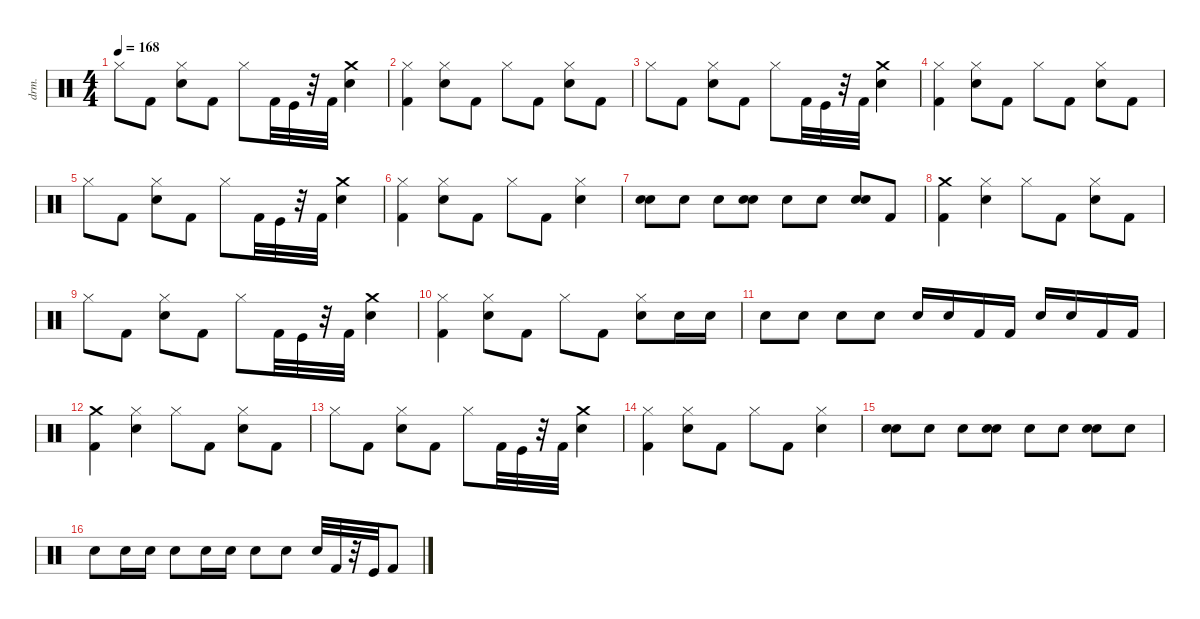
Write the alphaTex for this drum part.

\defaultSystemsLayout 4
\hideDynamics
\bracketExtendMode nobrackets
\otherSystemsTrackNameOrientation horizontal
\track ("Drums" "drm.") {instrument percussion}
\staff {score}
\articulation defaults
\ts (4 4)
\tempo 168
\clef neutral
\ks c "Hi-Hat (closed)".8{dy fff} "Kick (hit) 2".8
("Snare (hit) 2" "Hi-Hat (closed)").8 "Kick (hit) 2".8 "Hi-Hat (closed)".8 "Kick (hit) 2".32 "Kick (hit)".32 r.32 "Kick (hit) 2".32 ("Crash medium (hit)" "Snare (hit) 2").4 |
("Hi-Hat (closed)" "Kick (hit) 2").4 ("Hi-Hat (closed)" "Snare (hit) 2").8 "Kick (hit) 2".8 "Hi-Hat (closed)".8 "Kick (hit) 2".8 ("Snare (hit) 2" "Hi-Hat (closed)").8 "Kick (hit) 2".8 |
"Hi-Hat (closed)".8 "Kick (hit) 2".8 ("Snare (hit) 2" "Hi-Hat (closed)").8 "Kick (hit) 2".8 "Hi-Hat (closed)".8 "Kick (hit) 2".32 "Kick (hit)".32 r.32 "Kick (hit) 2".32 ("Crash medium (hit)" "Snare (hit) 2").4 |
("Hi-Hat (closed)" "Kick (hit) 2").4 ("Hi-Hat (closed)" "Snare (hit) 2").8 "Kick (hit) 2".8 "Hi-Hat (closed)".8 "Kick (hit) 2".8 ("Snare (hit) 2" "Hi-Hat (closed)").8 "Kick (hit) 2".8 |
"Hi-Hat (closed)".8 "Kick (hit) 2".8 ("Snare (hit) 2" "Hi-Hat (closed)").8 "Kick (hit) 2".8 "Hi-Hat (closed)".8 "Kick (hit) 2".32 "Kick (hit)".32 r.32 "Kick (hit) 2".32 ("Crash medium (hit)" "Snare (hit) 2").4 |
("Kick (hit) 2" "Hi-Hat (closed)").4 ("Hi-Hat (closed)" "Snare (hit) 2").8 "Kick (hit) 2".8 "Hi-Hat (closed)".8 "Kick (hit) 2".8 ("Snare (hit) 2" "Hi-Hat (closed)").4 |
("Snare (hit) 2" "Snare (hit) 2").8{dy f} "Snare (hit) 2".8{dy fff} "Snare (hit) 2".8 ("Snare (hit) 2" "Snare (hit) 2").8{dy f} "Snare (hit) 2".8{dy fff} "Snare (hit) 2".8 ("Snare (hit) 2" "Snare (hit) 2").8{dy f} "Kick (hit) 2".8{dy fff} |
("Kick (hit) 2" "Crash medium (hit)").4 ("Hi-Hat (closed)" "Snare (hit) 2").4 "Hi-Hat (closed)".8 "Kick (hit) 2".8 ("Snare (hit) 2" "Hi-Hat (closed)").8 "Kick (hit) 2".8 |
"Hi-Hat (closed)".8 "Kick (hit) 2".8 ("Snare (hit) 2" "Hi-Hat (closed)").8 "Kick (hit) 2".8 "Hi-Hat (closed)".8 "Kick (hit) 2".32 "Kick (hit)".32 r.32 "Kick (hit) 2".32 ("Crash medium (hit)" "Snare (hit) 2").4 |
("Hi-Hat (closed)" "Kick (hit) 2").4 ("Snare (hit) 2" "Hi-Hat (closed)").8 "Kick (hit) 2".8 "Hi-Hat (closed)".8 "Kick (hit) 2".8 ("Snare (hit) 2" "Hi-Hat (closed)").8 "Snare (hit) 2".16 "Snare (hit) 2".16 |
"Snare (hit) 2".8 "Snare (hit) 2".8 "Snare (hit) 2".8 "Snare (hit) 2".8 "Snare (hit) 2".16 "Snare (hit) 2".16 "Kick (hit) 2".16 "Kick (hit) 2".16 "Snare (hit) 2".16 "Snare (hit) 2".16 "Kick (hit) 2".16 "Kick (hit) 2".16 |
("Kick (hit) 2" "Crash medium (hit)").4 ("Hi-Hat (closed)" "Snare (hit) 2").4 "Hi-Hat (closed)".8 "Kick (hit) 2".8 ("Snare (hit) 2" "Hi-Hat (closed)").8 "Kick (hit) 2".8 |
"Hi-Hat (closed)".8 "Kick (hit) 2".8 ("Snare (hit) 2" "Hi-Hat (closed)").8 "Kick (hit) 2".8 "Hi-Hat (closed)".8 "Kick (hit) 2".32 "Kick (hit)".32 r.32 "Kick (hit) 2".32 ("Crash medium (hit)" "Snare (hit) 2").4 |
("Hi-Hat (closed)" "Kick (hit) 2").4 ("Snare (hit) 2" "Hi-Hat (closed)").8 "Kick (hit) 2".8 "Hi-Hat (closed)".8 "Kick (hit) 2".8 ("Snare (hit) 2" "Hi-Hat (closed)").4 |
("Snare (hit) 2" "Snare (hit) 2").8{dy f} "Snare (hit) 2".8{dy fff} "Snare (hit) 2".8 ("Snare (hit) 2" "Snare (hit) 2").8{dy f} "Snare (hit) 2".8{dy fff} "Snare (hit) 2".8 ("Snare (hit) 2" "Snare (hit) 2").8{dy f} "Snare (hit) 2".8{dy fff} |
"Snare (hit) 2".8 "Snare (hit) 2".16 "Snare (hit) 2".16 "Snare (hit) 2".8 "Snare (hit) 2".16 "Snare (hit) 2".16 "Snare (hit) 2".8 "Snare (hit) 2".8 "Snare (hit) 2".32 "Kick (hit) 2".32 r.32 "Kick (hit)".32 "Kick (hit) 2".8
